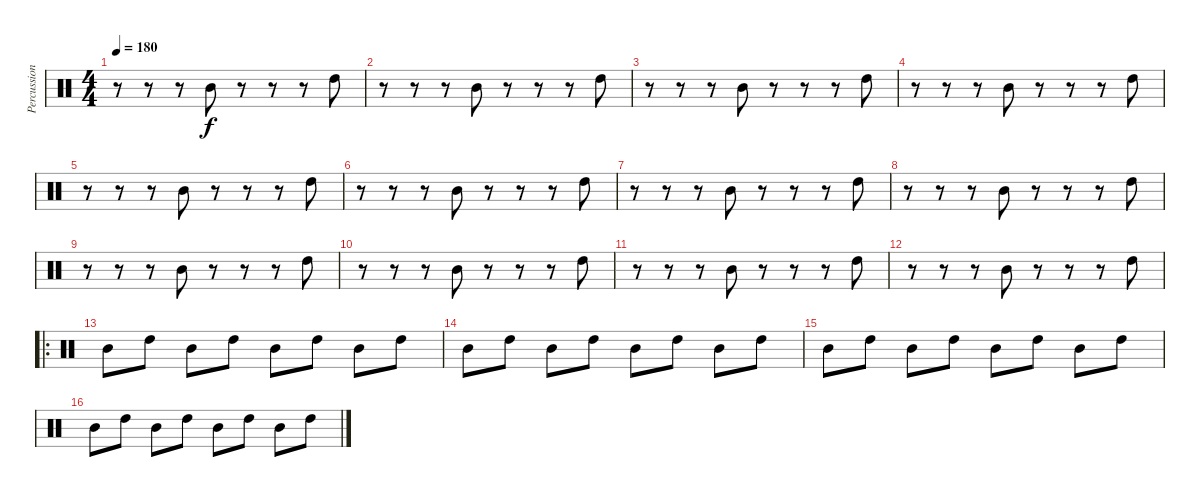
\track ("Percussions" "Percussion") {instrument percussion}
\staff {score}
\articulation defaults
\ts (4 4)
\tempo 180
\clef neutral
\ks c
r.8{dy f} r.8 r.8 "Mid Tom (hit)".8 r.8 r.8 r.8 "High Tom (hit)".8 |
r.8 r.8 r.8 "Mid Tom (hit)".8 r.8 r.8 r.8 "High Tom (hit)".8 |
r.8 r.8 r.8 "Mid Tom (hit)".8 r.8 r.8 r.8 "High Tom (hit)".8 |
r.8 r.8 r.8 "Mid Tom (hit)".8 r.8 r.8 r.8 "High Tom (hit)".8 |
r.8 r.8 r.8 "Mid Tom (hit)".8 r.8 r.8 r.8 "High Tom (hit)".8 |
r.8 r.8 r.8 "Mid Tom (hit)".8 r.8 r.8 r.8 "High Tom (hit)".8 |
r.8 r.8 r.8 "Mid Tom (hit)".8 r.8 r.8 r.8 "High Tom (hit)".8 |
r.8 r.8 r.8 "Mid Tom (hit)".8 r.8 r.8 r.8 "High Tom (hit)".8 |
r.8 r.8 r.8 "Mid Tom (hit)".8 r.8 r.8 r.8 "High Tom (hit)".8 |
r.8 r.8 r.8 "Mid Tom (hit)".8 r.8 r.8 r.8 "High Tom (hit)".8 |
r.8 r.8 r.8 "Mid Tom (hit)".8 r.8 r.8 r.8 "High Tom (hit)".8 |
r.8 r.8 r.8 "Mid Tom (hit)".8 r.8 r.8 r.8 "High Tom (hit)".8 |
\ro "Mid Tom (hit)".8 "High Tom (hit)".8 "Mid Tom (hit)".8 "High Tom (hit)".8 "Mid Tom (hit)".8 "High Tom (hit)".8 "Mid Tom (hit)".8 "High Tom (hit)".8
|
"Mid Tom (hit)".8 "High Tom (hit)".8 "Mid Tom (hit)".8 "High Tom (hit)".8 "Mid Tom (hit)".8 "High Tom (hit)".8 "Mid Tom (hit)".8 "High Tom (hit)".8 |
"Mid Tom (hit)".8 "High Tom (hit)".8 "Mid Tom (hit)".8 "High Tom (hit)".8 "Mid Tom (hit)".8 "High Tom (hit)".8 "Mid Tom (hit)".8 "High Tom (hit)".8 |
"Mid Tom (hit)".8 "High Tom (hit)".8 "Mid Tom (hit)".8 "High Tom (hit)".8 "Mid Tom (hit)".8 "High Tom (hit)".8 "Mid Tom (hit)".8 "High Tom (hit)".8
